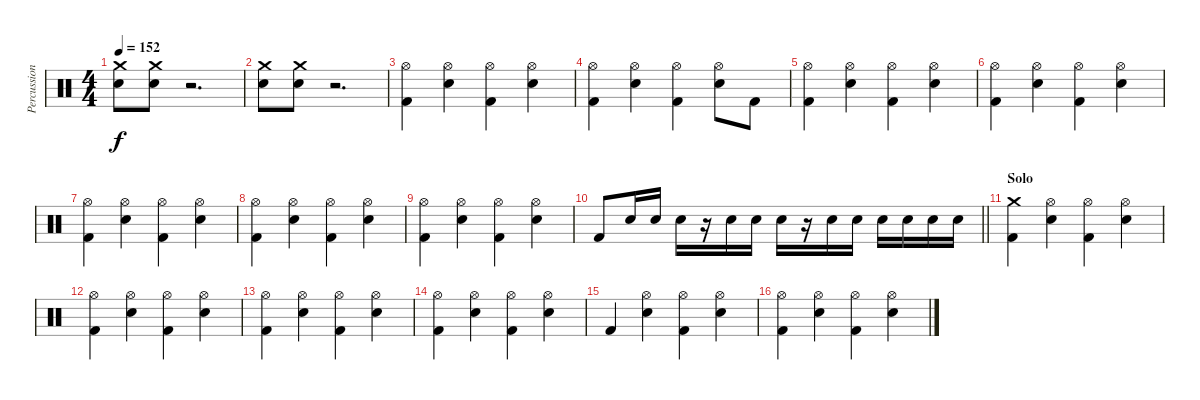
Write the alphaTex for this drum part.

\track ("Percussion" "Percussion") {instrument percussion}
\staff {score}
\articulation defaults
\ts (4 4)
\tempo 152
\clef neutral
\ks c
("Crash medium (hit)" "Electric Snare (hit)").8{dy f} ("Crash medium (hit)" "Electric Snare (hit)").8 r.2{d} |
("Crash medium (hit)" "Electric Snare (hit)").8 ("Crash medium (hit)" "Electric Snare (hit)").8 r.2{d} |
("Hi-Hat (open)" "Kick (hit) 2").4 ("Hi-Hat (open)" "Electric Snare (hit)").4 ("Hi-Hat (open)" "Kick (hit) 2").4 ("Hi-Hat (open)" "Electric Snare (hit)").4 |
("Hi-Hat (open)" "Kick (hit) 2").4 ("Hi-Hat (open)" "Electric Snare (hit)").4 ("Hi-Hat (open)" "Kick (hit) 2").4 ("Hi-Hat (open)" "Electric Snare (hit)").8 "Kick (hit) 2".8 |
("Hi-Hat (open)" "Kick (hit) 2").4 ("Hi-Hat (open)" "Electric Snare (hit)").4 ("Hi-Hat (open)" "Kick (hit) 2").4 ("Hi-Hat (open)" "Electric Snare (hit)").4 |
("Hi-Hat (open)" "Kick (hit) 2").4 ("Hi-Hat (open)" "Electric Snare (hit)").4 ("Hi-Hat (open)" "Kick (hit) 2").4 ("Hi-Hat (open)" "Electric Snare (hit)").4 |
("Hi-Hat (open)" "Kick (hit) 2").4 ("Hi-Hat (open)" "Electric Snare (hit)").4 ("Hi-Hat (open)" "Kick (hit) 2").4 ("Hi-Hat (open)" "Electric Snare (hit)").4 |
("Hi-Hat (open)" "Kick (hit) 2").4 ("Hi-Hat (open)" "Electric Snare (hit)").4 ("Hi-Hat (open)" "Kick (hit) 2").4 ("Hi-Hat (open)" "Electric Snare (hit)").4 |
("Hi-Hat (open)" "Kick (hit) 2").4 ("Hi-Hat (open)" "Electric Snare (hit)").4 ("Hi-Hat (open)" "Kick (hit) 2").4 ("Hi-Hat (open)" "Electric Snare (hit)").4 |
\barLineRight lightlight "Kick (hit) 2".8 "Electric Snare (hit)".16 "Electric Snare (hit)".16 "Electric Snare (hit)".16
r.16 "Electric Snare (hit)".16 "Electric Snare (hit)".16 "Electric Snare (hit)".16 r.16 "Electric Snare (hit)".16 "Electric Snare (hit)".16 "Electric Snare (hit)".16 "Electric Snare (hit)".16 "Electric Snare (hit)".16 "Electric Snare (hit)".16 |
\section ("" "Solo")
("Crash medium (hit)" "Kick (hit) 2").4 ("Hi-Hat (open)" "Electric Snare (hit)").4 ("Hi-Hat (open)" "Kick (hit) 2").4 ("Hi-Hat (open)" "Electric Snare (hit)").4 |
("Hi-Hat (open)" "Kick (hit) 2").4 ("Hi-Hat (open)" "Electric Snare (hit)").4 ("Hi-Hat (open)" "Kick (hit) 2").4 ("Hi-Hat (open)" "Electric Snare (hit)").4 |
("Hi-Hat (open)" "Kick (hit) 2").4 ("Hi-Hat (open)" "Electric Snare (hit)").4 ("Hi-Hat (open)" "Kick (hit) 2").4 ("Hi-Hat (open)" "Electric Snare (hit)").4 |
("Hi-Hat (open)" "Kick (hit) 2").4 ("Hi-Hat (open)" "Electric Snare (hit)").4 ("Hi-Hat (open)" "Kick (hit) 2").4 ("Hi-Hat (open)" "Electric Snare (hit)").4 |
"Kick (hit) 2".4 ("Hi-Hat (open)" "Electric Snare (hit)").4 ("Hi-Hat (open)" "Kick (hit) 2").4 ("Hi-Hat (open)" "Electric Snare (hit)").4 |
("Hi-Hat (open)" "Kick (hit) 2").4 ("Hi-Hat (open)" "Electric Snare (hit)").4 ("Hi-Hat (open)" "Kick (hit) 2").4 ("Hi-Hat (open)" "Electric Snare (hit)").4
